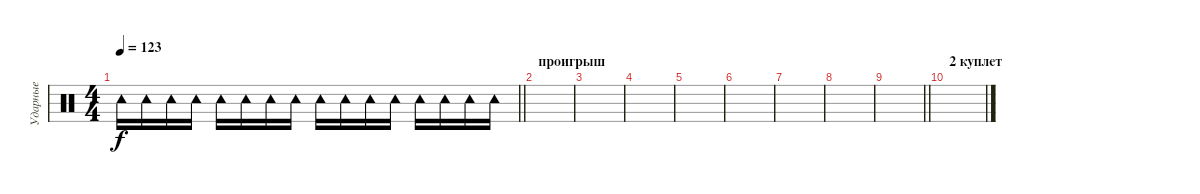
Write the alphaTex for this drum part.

\track ("Ударные" "Ударные") {instrument percussion}
\staff {score}
\articulation defaults
\ts (4 4)
\tempo 123
\clef neutral
\barLineRight lightlight
\ks c "Tambourine (hit)".16{dy f} "Tambourine (hit)".16 "Tambourine (hit)".16 "Tambourine (hit)".16 "Tambourine (hit)".16 "Tambourine (hit)".16 "Tambourine (hit)".16 "Tambourine (hit)".16 "Tambourine (hit)".16 "Tambourine (hit)".16 "Tambourine (hit)".16 "Tambourine (hit)".16 "Tambourine (hit)".16 "Tambourine (hit)".16 "Tambourine (hit)".16 "Tambourine (hit)".16
|
\section ("" "проигрыш")
|
|
|
|
|
|
|
\barLineRight lightlight
|
\section ("" "2 куплет")
